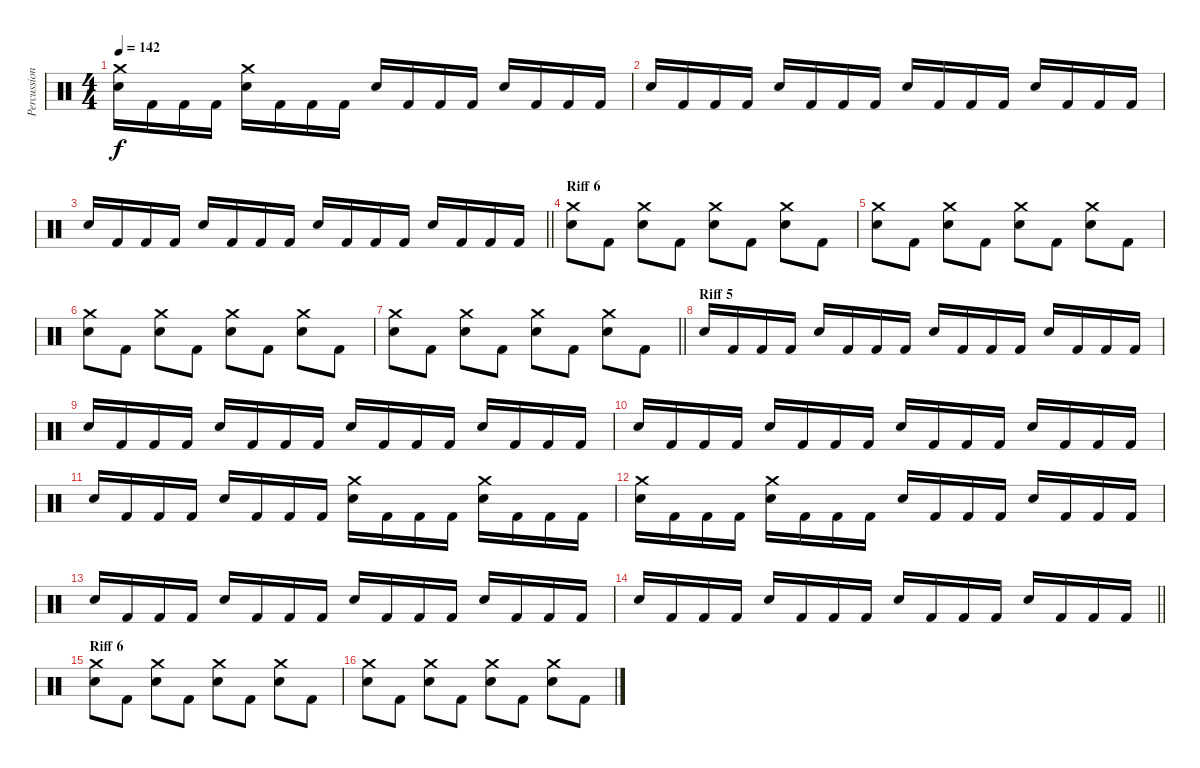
\track ("Percussions" "Percussion") {instrument percussion}
\staff {score}
\articulation defaults
\ts (4 4)
\tempo 142
\clef neutral
\ks c
("Crash medium (hit)" "Electric Snare (hit)").16{dy f} "Kick (hit) 2".16 "Kick (hit) 2".16 "Kick (hit) 2".16 ("Crash medium (hit)" "Electric Snare (hit)").16 "Kick (hit) 2".16 "Kick (hit) 2".16 "Kick (hit) 2".16 "Electric Snare (hit)".16 "Kick (hit) 2".16 "Kick (hit) 2".16 "Kick (hit) 2".16 "Electric Snare (hit)".16 "Kick (hit) 2".16 "Kick (hit) 2".16 "Kick (hit) 2".16 |
"Electric Snare (hit)".16 "Kick (hit) 2".16 "Kick (hit) 2".16 "Kick (hit) 2".16 "Electric Snare (hit)".16 "Kick (hit) 2".16 "Kick (hit) 2".16 "Kick (hit) 2".16 "Electric Snare (hit)".16 "Kick (hit) 2".16 "Kick (hit) 2".16 "Kick (hit) 2".16 "Electric Snare (hit)".16 "Kick (hit) 2".16 "Kick (hit) 2".16 "Kick (hit) 2".16 |
\barLineRight lightlight "Electric Snare (hit)".16 "Kick (hit) 2".16 "Kick (hit) 2".16 "Kick (hit) 2".16 "Electric Snare (hit)".16 "Kick (hit) 2".16 "Kick (hit) 2".16 "Kick (hit) 2".16 "Electric Snare (hit)".16 "Kick (hit) 2".16 "Kick (hit) 2".16 "Kick (hit) 2".16 "Electric Snare (hit)".16 "Kick (hit) 2".16 "Kick (hit) 2".16 "Kick (hit) 2".16
|
\section ("" "Riff 6")
("Crash medium (hit)" "Electric Snare (hit)").8 "Kick (hit) 2".8 ("Crash medium (hit)" "Electric Snare (hit)").8 "Kick (hit) 2".8 ("Crash medium (hit)" "Electric Snare (hit)").8 "Kick (hit) 2".8 ("Crash medium (hit)" "Electric Snare (hit)").8 "Kick (hit) 2".8 |
("Crash medium (hit)" "Electric Snare (hit)").8 "Kick (hit) 2".8 ("Crash medium (hit)" "Electric Snare (hit)").8 "Kick (hit) 2".8 ("Crash medium (hit)" "Electric Snare (hit)").8 "Kick (hit) 2".8 ("Crash medium (hit)" "Electric Snare (hit)").8 "Kick (hit) 2".8 |
("Crash medium (hit)" "Electric Snare (hit)").8 "Kick (hit) 2".8 ("Crash medium (hit)" "Electric Snare (hit)").8 "Kick (hit) 2".8 ("Crash medium (hit)" "Electric Snare (hit)").8 "Kick (hit) 2".8 ("Crash medium (hit)" "Electric Snare (hit)").8 "Kick (hit) 2".8 |
\barLineRight lightlight
("Crash medium (hit)" "Electric Snare (hit)").8 "Kick (hit) 2".8 ("Crash medium (hit)" "Electric Snare (hit)").8 "Kick (hit) 2".8 ("Crash medium (hit)" "Electric Snare (hit)").8 "Kick (hit) 2".8 ("Crash medium (hit)" "Electric Snare (hit)").8 "Kick (hit) 2".8 |
\section ("" "Riff 5")
"Electric Snare (hit)".16 "Kick (hit) 2".16 "Kick (hit) 2".16 "Kick (hit) 2".16 "Electric Snare (hit)".16 "Kick (hit) 2".16 "Kick (hit) 2".16 "Kick (hit) 2".16 "Electric Snare (hit)".16 "Kick (hit) 2".16 "Kick (hit) 2".16 "Kick (hit) 2".16 "Electric Snare (hit)".16 "Kick (hit) 2".16 "Kick (hit) 2".16 "Kick (hit) 2".16 |
"Electric Snare (hit)".16 "Kick (hit) 2".16 "Kick (hit) 2".16 "Kick (hit) 2".16 "Electric Snare (hit)".16 "Kick (hit) 2".16 "Kick (hit) 2".16 "Kick (hit) 2".16 "Electric Snare (hit)".16 "Kick (hit) 2".16 "Kick (hit) 2".16 "Kick (hit) 2".16 "Electric Snare (hit)".16 "Kick (hit) 2".16 "Kick (hit) 2".16 "Kick (hit) 2".16 |
"Electric Snare (hit)".16 "Kick (hit) 2".16 "Kick (hit) 2".16 "Kick (hit) 2".16 "Electric Snare (hit)".16 "Kick (hit) 2".16 "Kick (hit) 2".16 "Kick (hit) 2".16 "Electric Snare (hit)".16 "Kick (hit) 2".16 "Kick (hit) 2".16 "Kick (hit) 2".16 "Electric Snare (hit)".16 "Kick (hit) 2".16 "Kick (hit) 2".16 "Kick (hit) 2".16 |
"Electric Snare (hit)".16 "Kick (hit) 2".16 "Kick (hit) 2".16 "Kick (hit) 2".16 "Electric Snare (hit)".16 "Kick (hit) 2".16 "Kick (hit) 2".16 "Kick (hit) 2".16 ("Crash medium (hit)" "Electric Snare (hit)").16 "Kick (hit) 2".16 "Kick (hit) 2".16 "Kick (hit) 2".16 ("Crash medium (hit)" "Electric Snare (hit)").16 "Kick (hit) 2".16 "Kick (hit) 2".16 "Kick (hit) 2".16 |
("Crash medium (hit)" "Electric Snare (hit)").16 "Kick (hit) 2".16 "Kick (hit) 2".16 "Kick (hit) 2".16 ("Crash medium (hit)" "Electric Snare (hit)").16 "Kick (hit) 2".16 "Kick (hit) 2".16 "Kick (hit) 2".16 "Electric Snare (hit)".16 "Kick (hit) 2".16 "Kick (hit) 2".16 "Kick (hit) 2".16 "Electric Snare (hit)".16 "Kick (hit) 2".16 "Kick (hit) 2".16 "Kick (hit) 2".16 |
"Electric Snare (hit)".16 "Kick (hit) 2".16 "Kick (hit) 2".16 "Kick (hit) 2".16 "Electric Snare (hit)".16 "Kick (hit) 2".16 "Kick (hit) 2".16 "Kick (hit) 2".16 "Electric Snare (hit)".16 "Kick (hit) 2".16 "Kick (hit) 2".16 "Kick (hit) 2".16 "Electric Snare (hit)".16 "Kick (hit) 2".16 "Kick (hit) 2".16 "Kick (hit) 2".16 |
\barLineRight lightlight "Electric Snare (hit)".16 "Kick (hit) 2".16 "Kick (hit) 2".16 "Kick (hit) 2".16 "Electric Snare (hit)".16 "Kick (hit) 2".16 "Kick (hit) 2".16 "Kick (hit) 2".16 "Electric Snare (hit)".16 "Kick (hit) 2".16 "Kick (hit) 2".16 "Kick (hit) 2".16 "Electric Snare (hit)".16 "Kick (hit) 2".16 "Kick (hit) 2".16 "Kick (hit) 2".16
|
\section ("" "Riff 6")
("Crash medium (hit)" "Electric Snare (hit)").8 "Kick (hit) 2".8 ("Crash medium (hit)" "Electric Snare (hit)").8 "Kick (hit) 2".8 ("Crash medium (hit)" "Electric Snare (hit)").8 "Kick (hit) 2".8 ("Crash medium (hit)" "Electric Snare (hit)").8 "Kick (hit) 2".8 |
("Crash medium (hit)" "Electric Snare (hit)").8 "Kick (hit) 2".8 ("Crash medium (hit)" "Electric Snare (hit)").8 "Kick (hit) 2".8 ("Crash medium (hit)" "Electric Snare (hit)").8 "Kick (hit) 2".8 ("Crash medium (hit)" "Electric Snare (hit)").8 "Kick (hit) 2".8
